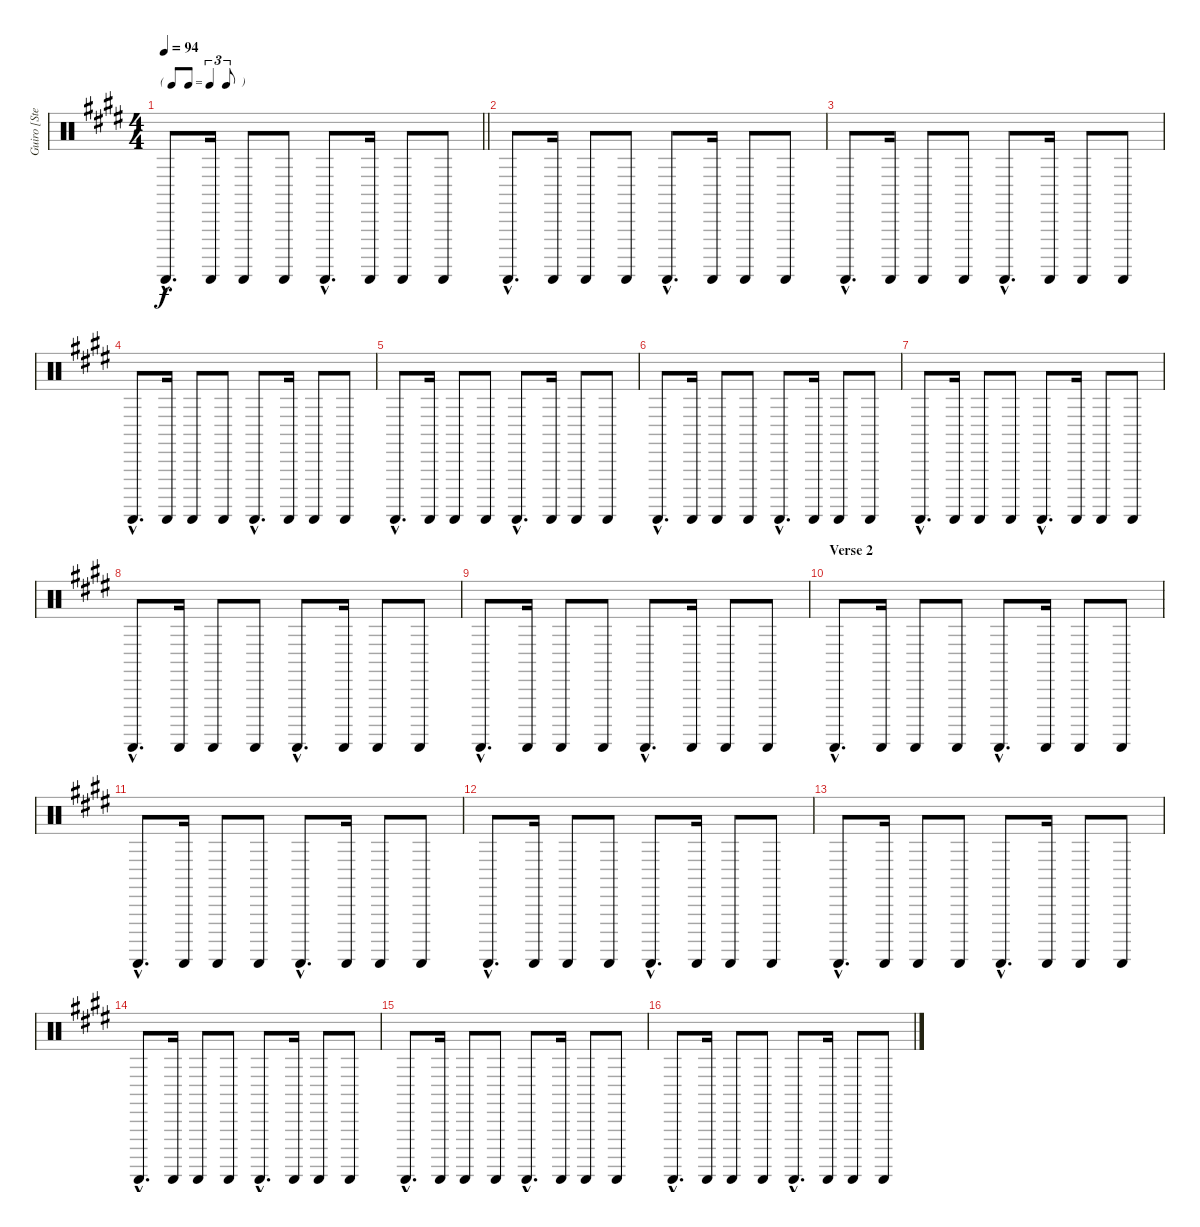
\track ("Guiro [Steve Gadd]" "Guiro [Ste") {instrument percussion}
\staff {score}
\articulation defaults
\ts (4 4)
\tf triplet8th
\tempo 94
\clef neutral
\barLineRight lightlight
\ks e "Guiro (scrap-return)"{hac}.8{d dy f} "Guiro (scrap-return)".16 "Guiro (scrap-return)".8 "Guiro (scrap-return)".8 "Guiro (scrap-return)"{hac}.8{d} "Guiro (scrap-return)".16 "Guiro (scrap-return)".8 "Guiro (scrap-return)".8
|
"Guiro (scrap-return)"{hac}.8{d} "Guiro (scrap-return)".16 "Guiro (scrap-return)".8 "Guiro (scrap-return)".8 "Guiro (scrap-return)"{hac}.8{d} "Guiro (scrap-return)".16 "Guiro (scrap-return)".8 "Guiro (scrap-return)".8 |
"Guiro (scrap-return)"{hac}.8{d} "Guiro (scrap-return)".16 "Guiro (scrap-return)".8 "Guiro (scrap-return)".8 "Guiro (scrap-return)"{hac}.8{d} "Guiro (scrap-return)".16 "Guiro (scrap-return)".8 "Guiro (scrap-return)".8 |
"Guiro (scrap-return)"{hac}.8{d} "Guiro (scrap-return)".16 "Guiro (scrap-return)".8 "Guiro (scrap-return)".8 "Guiro (scrap-return)"{hac}.8{d} "Guiro (scrap-return)".16 "Guiro (scrap-return)".8 "Guiro (scrap-return)".8 |
"Guiro (scrap-return)"{hac}.8{d} "Guiro (scrap-return)".16 "Guiro (scrap-return)".8 "Guiro (scrap-return)".8 "Guiro (scrap-return)"{hac}.8{d} "Guiro (scrap-return)".16 "Guiro (scrap-return)".8 "Guiro (scrap-return)".8 |
"Guiro (scrap-return)"{hac}.8{d} "Guiro (scrap-return)".16 "Guiro (scrap-return)".8 "Guiro (scrap-return)".8 "Guiro (scrap-return)"{hac}.8{d} "Guiro (scrap-return)".16 "Guiro (scrap-return)".8 "Guiro (scrap-return)".8 |
"Guiro (scrap-return)"{hac}.8{d} "Guiro (scrap-return)".16 "Guiro (scrap-return)".8 "Guiro (scrap-return)".8 "Guiro (scrap-return)"{hac}.8{d} "Guiro (scrap-return)".16 "Guiro (scrap-return)".8 "Guiro (scrap-return)".8 |
"Guiro (scrap-return)"{hac}.8{d} "Guiro (scrap-return)".16 "Guiro (scrap-return)".8 "Guiro (scrap-return)".8 "Guiro (scrap-return)"{hac}.8{d} "Guiro (scrap-return)".16 "Guiro (scrap-return)".8 "Guiro (scrap-return)".8 |
"Guiro (scrap-return)"{hac}.8{d} "Guiro (scrap-return)".16 "Guiro (scrap-return)".8 "Guiro (scrap-return)".8 "Guiro (scrap-return)"{hac}.8{d} "Guiro (scrap-return)".16 "Guiro (scrap-return)".8 "Guiro (scrap-return)".8 |
\section ("" "Verse 2")
"Guiro (scrap-return)"{hac}.8{d} "Guiro (scrap-return)".16 "Guiro (scrap-return)".8 "Guiro (scrap-return)".8 "Guiro (scrap-return)"{hac}.8{d} "Guiro (scrap-return)".16 "Guiro (scrap-return)".8 "Guiro (scrap-return)".8 |
"Guiro (scrap-return)"{hac}.8{d} "Guiro (scrap-return)".16 "Guiro (scrap-return)".8 "Guiro (scrap-return)".8 "Guiro (scrap-return)"{hac}.8{d} "Guiro (scrap-return)".16 "Guiro (scrap-return)".8 "Guiro (scrap-return)".8 |
"Guiro (scrap-return)"{hac}.8{d} "Guiro (scrap-return)".16 "Guiro (scrap-return)".8 "Guiro (scrap-return)".8 "Guiro (scrap-return)"{hac}.8{d} "Guiro (scrap-return)".16 "Guiro (scrap-return)".8 "Guiro (scrap-return)".8 |
"Guiro (scrap-return)"{hac}.8{d} "Guiro (scrap-return)".16 "Guiro (scrap-return)".8 "Guiro (scrap-return)".8 "Guiro (scrap-return)"{hac}.8{d} "Guiro (scrap-return)".16 "Guiro (scrap-return)".8 "Guiro (scrap-return)".8 |
"Guiro (scrap-return)"{hac}.8{d} "Guiro (scrap-return)".16 "Guiro (scrap-return)".8 "Guiro (scrap-return)".8 "Guiro (scrap-return)"{hac}.8{d} "Guiro (scrap-return)".16 "Guiro (scrap-return)".8 "Guiro (scrap-return)".8 |
"Guiro (scrap-return)"{hac}.8{d} "Guiro (scrap-return)".16 "Guiro (scrap-return)".8 "Guiro (scrap-return)".8 "Guiro (scrap-return)"{hac}.8{d} "Guiro (scrap-return)".16 "Guiro (scrap-return)".8 "Guiro (scrap-return)".8 |
"Guiro (scrap-return)"{hac}.8{d} "Guiro (scrap-return)".16 "Guiro (scrap-return)".8 "Guiro (scrap-return)".8 "Guiro (scrap-return)"{hac}.8{d} "Guiro (scrap-return)".16 "Guiro (scrap-return)".8 "Guiro (scrap-return)".8
